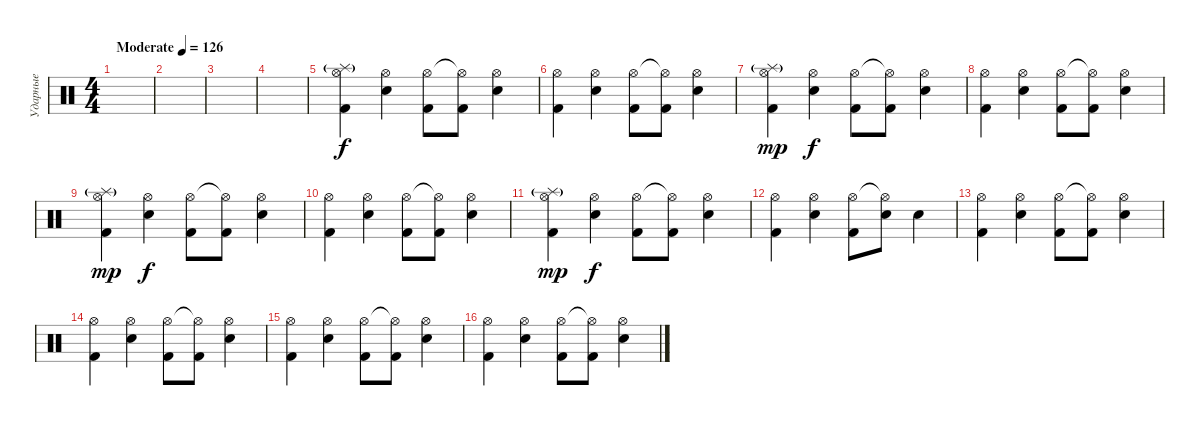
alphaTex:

\track ("Ударные" "Ударные") {instrument percussion}
\staff {score}
\articulation defaults
\ts (4 4)
\tempo (126 "Moderate")
\clef neutral
\ks c
|
|
|
|
("Kick (hit) 2" "Hi-Hat (open)" "Splash (hit)"{g}).4 ("Electric Snare (hit)" "Hi-Hat (open)").4{dy f} ("Kick (hit) 2" "Hi-Hat (open)").8 ("Kick (hit) 2" "Hi-Hat (open)"{t}).8 ("Electric Snare (hit)" "Hi-Hat (open)").4 |
("Kick (hit) 2" "Hi-Hat (open)").4 ("Electric Snare (hit)" "Hi-Hat (open)").4 ("Kick (hit) 2" "Hi-Hat (open)").8 ("Kick (hit) 2" "Hi-Hat (open)"{t}).8 ("Electric Snare (hit)" "Hi-Hat (open)").4 |
("Kick (hit) 2" "Hi-Hat (open)" "Splash (hit)"{g}).4{dy mp} ("Electric Snare (hit)" "Hi-Hat (open)").4{dy f} ("Kick (hit) 2" "Hi-Hat (open)").8 ("Kick (hit) 2" "Hi-Hat (open)"{t}).8 ("Electric Snare (hit)" "Hi-Hat (open)").4 |
("Kick (hit) 2" "Hi-Hat (open)").4 ("Electric Snare (hit)" "Hi-Hat (open)").4 ("Kick (hit) 2" "Hi-Hat (open)").8 ("Kick (hit) 2" "Hi-Hat (open)"{t}).8 ("Electric Snare (hit)" "Hi-Hat (open)").4 |
("Kick (hit) 2" "Hi-Hat (open)" "Splash (hit)"{g}).4{dy mp} ("Electric Snare (hit)" "Hi-Hat (open)").4{dy f} ("Kick (hit) 2" "Hi-Hat (open)").8 ("Kick (hit) 2" "Hi-Hat (open)"{t}).8 ("Electric Snare (hit)" "Hi-Hat (open)").4 |
("Kick (hit) 2" "Hi-Hat (open)").4 ("Electric Snare (hit)" "Hi-Hat (open)").4 ("Kick (hit) 2" "Hi-Hat (open)").8 ("Kick (hit) 2" "Hi-Hat (open)"{t}).8 ("Electric Snare (hit)" "Hi-Hat (open)").4 |
("Kick (hit) 2" "Hi-Hat (open)" "Splash (hit)"{g}).4{dy mp} ("Electric Snare (hit)" "Hi-Hat (open)").4{dy f} ("Kick (hit) 2" "Hi-Hat (open)").8 ("Kick (hit) 2" "Hi-Hat (open)"{t}).8 ("Electric Snare (hit)" "Hi-Hat (open)").4 |
("Kick (hit) 2" "Hi-Hat (open)").4 ("Electric Snare (hit)" "Hi-Hat (open)").4 ("Kick (hit) 2" "Hi-Hat (open)").8 ("Electric Snare (hit)" "Hi-Hat (open)"{t}).8 "Electric Snare (hit)".4 |
("Kick (hit) 2" "Hi-Hat (open)").4 ("Electric Snare (hit)" "Hi-Hat (open)").4 ("Kick (hit) 2" "Hi-Hat (open)").8 ("Kick (hit) 2" "Hi-Hat (open)"{t}).8 ("Electric Snare (hit)" "Hi-Hat (open)").4 |
("Kick (hit) 2" "Hi-Hat (open)").4 ("Electric Snare (hit)" "Hi-Hat (open)").4 ("Kick (hit) 2" "Hi-Hat (open)").8 ("Kick (hit) 2" "Hi-Hat (open)"{t}).8 ("Electric Snare (hit)" "Hi-Hat (open)").4 |
("Kick (hit) 2" "Hi-Hat (open)").4 ("Electric Snare (hit)" "Hi-Hat (open)").4 ("Kick (hit) 2" "Hi-Hat (open)").8 ("Kick (hit) 2" "Hi-Hat (open)"{t}).8 ("Electric Snare (hit)" "Hi-Hat (open)").4 |
("Kick (hit) 2" "Hi-Hat (open)").4 ("Electric Snare (hit)" "Hi-Hat (open)").4 ("Kick (hit) 2" "Hi-Hat (open)").8 ("Kick (hit) 2" "Hi-Hat (open)"{t}).8 ("Electric Snare (hit)" "Hi-Hat (open)").4
